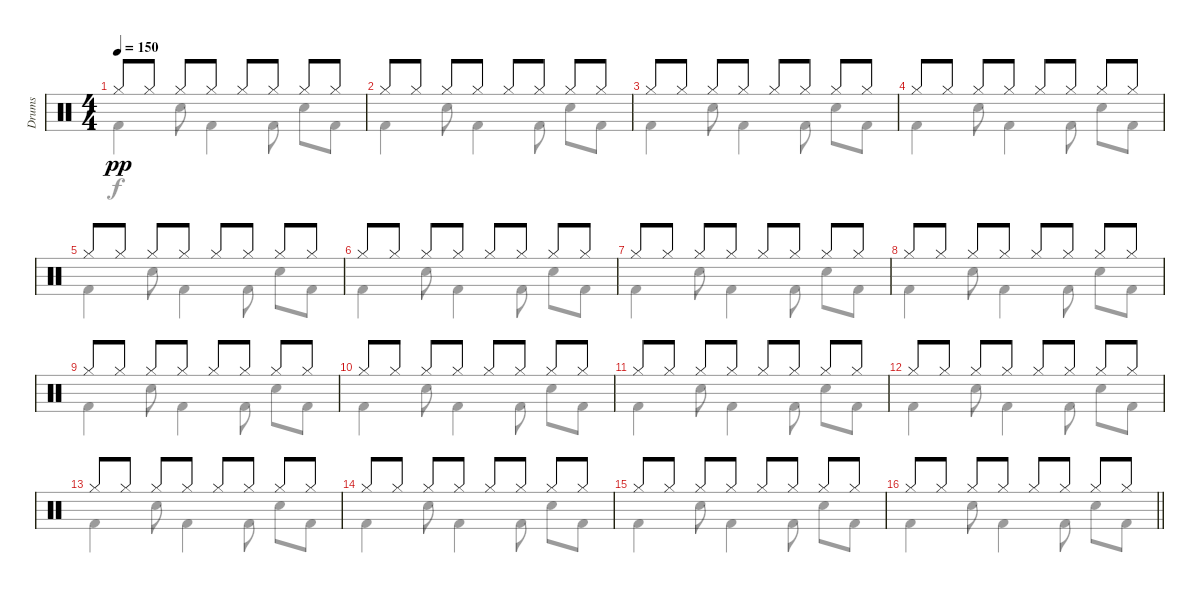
\track ("Drums" "Drums") {instrument percussion}
\staff {score}
\articulation defaults
\voice
\ts (4 4)
\tempo 150
\clef neutral
\ks c "Hi-Hat (closed)".8{dy pp} "Hi-Hat (closed)".8 "Hi-Hat (closed)".8 "Hi-Hat (closed)".8 "Hi-Hat (closed)".8 "Hi-Hat (closed)".8 "Hi-Hat (closed)".8 "Hi-Hat (closed)".8
|
"Hi-Hat (closed)".8 "Hi-Hat (closed)".8 "Hi-Hat (closed)".8 "Hi-Hat (closed)".8 "Hi-Hat (closed)".8 "Hi-Hat (closed)".8 "Hi-Hat (closed)".8 "Hi-Hat (closed)".8 |
"Hi-Hat (closed)".8 "Hi-Hat (closed)".8 "Hi-Hat (closed)".8 "Hi-Hat (closed)".8 "Hi-Hat (closed)".8 "Hi-Hat (closed)".8 "Hi-Hat (closed)".8 "Hi-Hat (closed)".8 |
"Hi-Hat (closed)".8 "Hi-Hat (closed)".8 "Hi-Hat (closed)".8 "Hi-Hat (closed)".8 "Hi-Hat (closed)".8 "Hi-Hat (closed)".8 "Hi-Hat (closed)".8 "Hi-Hat (closed)".8 |
"Hi-Hat (closed)".8 "Hi-Hat (closed)".8 "Hi-Hat (closed)".8 "Hi-Hat (closed)".8 "Hi-Hat (closed)".8 "Hi-Hat (closed)".8 "Hi-Hat (closed)".8 "Hi-Hat (closed)".8 |
"Hi-Hat (closed)".8 "Hi-Hat (closed)".8 "Hi-Hat (closed)".8 "Hi-Hat (closed)".8 "Hi-Hat (closed)".8 "Hi-Hat (closed)".8 "Hi-Hat (closed)".8 "Hi-Hat (closed)".8 |
"Hi-Hat (closed)".8 "Hi-Hat (closed)".8 "Hi-Hat (closed)".8 "Hi-Hat (closed)".8 "Hi-Hat (closed)".8 "Hi-Hat (closed)".8 "Hi-Hat (closed)".8 "Hi-Hat (closed)".8 |
"Hi-Hat (closed)".8 "Hi-Hat (closed)".8 "Hi-Hat (closed)".8 "Hi-Hat (closed)".8 "Hi-Hat (closed)".8 "Hi-Hat (closed)".8 "Hi-Hat (closed)".8 "Hi-Hat (closed)".8 |
"Hi-Hat (closed)".8 "Hi-Hat (closed)".8 "Hi-Hat (closed)".8 "Hi-Hat (closed)".8 "Hi-Hat (closed)".8 "Hi-Hat (closed)".8 "Hi-Hat (closed)".8 "Hi-Hat (closed)".8 |
"Hi-Hat (closed)".8 "Hi-Hat (closed)".8 "Hi-Hat (closed)".8 "Hi-Hat (closed)".8 "Hi-Hat (closed)".8 "Hi-Hat (closed)".8 "Hi-Hat (closed)".8 "Hi-Hat (closed)".8 |
"Hi-Hat (closed)".8 "Hi-Hat (closed)".8 "Hi-Hat (closed)".8 "Hi-Hat (closed)".8 "Hi-Hat (closed)".8 "Hi-Hat (closed)".8 "Hi-Hat (closed)".8 "Hi-Hat (closed)".8 |
"Hi-Hat (closed)".8 "Hi-Hat (closed)".8 "Hi-Hat (closed)".8 "Hi-Hat (closed)".8 "Hi-Hat (closed)".8 "Hi-Hat (closed)".8 "Hi-Hat (closed)".8 "Hi-Hat (closed)".8 |
"Hi-Hat (closed)".8 "Hi-Hat (closed)".8 "Hi-Hat (closed)".8 "Hi-Hat (closed)".8 "Hi-Hat (closed)".8 "Hi-Hat (closed)".8 "Hi-Hat (closed)".8 "Hi-Hat (closed)".8 |
"Hi-Hat (closed)".8 "Hi-Hat (closed)".8 "Hi-Hat (closed)".8 "Hi-Hat (closed)".8 "Hi-Hat (closed)".8 "Hi-Hat (closed)".8 "Hi-Hat (closed)".8 "Hi-Hat (closed)".8 |
"Hi-Hat (closed)".8 "Hi-Hat (closed)".8 "Hi-Hat (closed)".8 "Hi-Hat (closed)".8 "Hi-Hat (closed)".8 "Hi-Hat (closed)".8 "Hi-Hat (closed)".8 "Hi-Hat (closed)".8 |
\barLineRight lightlight "Hi-Hat (closed)".8 "Hi-Hat (closed)".8 "Hi-Hat (closed)".8 "Hi-Hat (closed)".8 "Hi-Hat (closed)".8 "Hi-Hat (closed)".8 "Hi-Hat (closed)".8 "Hi-Hat (closed)".8
\voice
\clef neutral
\ottava regular
\simile none
\ks c "Kick (hit) 2".4{dy f} "Electric Snare (hit)".8 "Kick (hit) 2".4 "Kick (hit) 2".8 "Electric Snare (hit)".8 "Kick (hit) 2".8
|
"Kick (hit) 2".4 "Electric Snare (hit)".8 "Kick (hit) 2".4 "Kick (hit) 2".8 "Electric Snare (hit)".8 "Kick (hit) 2".8 |
"Kick (hit) 2".4 "Electric Snare (hit)".8 "Kick (hit) 2".4 "Kick (hit) 2".8 "Electric Snare (hit)".8 "Kick (hit) 2".8 |
"Kick (hit) 2".4 "Electric Snare (hit)".8 "Kick (hit) 2".4 "Kick (hit) 2".8 "Electric Snare (hit)".8 "Kick (hit) 2".8 |
"Kick (hit) 2".4 "Electric Snare (hit)".8 "Kick (hit) 2".4 "Kick (hit) 2".8 "Electric Snare (hit)".8 "Kick (hit) 2".8 |
"Kick (hit) 2".4 "Electric Snare (hit)".8 "Kick (hit) 2".4 "Kick (hit) 2".8 "Electric Snare (hit)".8 "Kick (hit) 2".8 |
"Kick (hit) 2".4 "Electric Snare (hit)".8 "Kick (hit) 2".4 "Kick (hit) 2".8 "Electric Snare (hit)".8 "Kick (hit) 2".8 |
"Kick (hit) 2".4 "Electric Snare (hit)".8 "Kick (hit) 2".4 "Kick (hit) 2".8 "Electric Snare (hit)".8 "Kick (hit) 2".8 |
"Kick (hit) 2".4 "Electric Snare (hit)".8 "Kick (hit) 2".4 "Kick (hit) 2".8 "Electric Snare (hit)".8 "Kick (hit) 2".8 |
"Kick (hit) 2".4 "Electric Snare (hit)".8 "Kick (hit) 2".4 "Kick (hit) 2".8 "Electric Snare (hit)".8 "Kick (hit) 2".8 |
"Kick (hit) 2".4 "Electric Snare (hit)".8 "Kick (hit) 2".4 "Kick (hit) 2".8 "Electric Snare (hit)".8 "Kick (hit) 2".8 |
"Kick (hit) 2".4 "Electric Snare (hit)".8 "Kick (hit) 2".4 "Kick (hit) 2".8 "Electric Snare (hit)".8 "Kick (hit) 2".8 |
"Kick (hit) 2".4 "Electric Snare (hit)".8 "Kick (hit) 2".4 "Kick (hit) 2".8 "Electric Snare (hit)".8 "Kick (hit) 2".8 |
"Kick (hit) 2".4 "Electric Snare (hit)".8 "Kick (hit) 2".4 "Kick (hit) 2".8 "Electric Snare (hit)".8 "Kick (hit) 2".8 |
"Kick (hit) 2".4 "Electric Snare (hit)".8 "Kick (hit) 2".4 "Kick (hit) 2".8 "Electric Snare (hit)".8 "Kick (hit) 2".8 |
\barLineRight lightlight "Kick (hit) 2".4 "Electric Snare (hit)".8 "Kick (hit) 2".4 "Kick (hit) 2".8 "Electric Snare (hit)".8 "Kick (hit) 2".8
